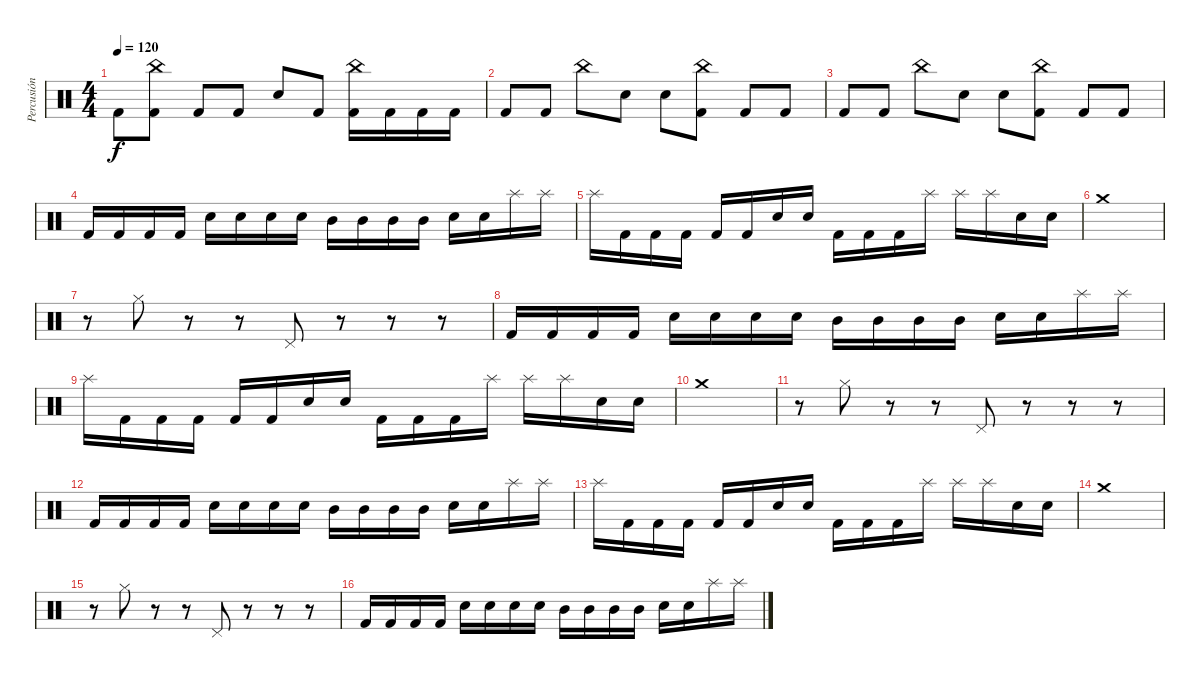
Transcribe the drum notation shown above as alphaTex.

\track ("Percusión" "Percusión") {instrument percussion}
\staff {score}
\articulation defaults
\ts (4 4)
\tempo 120
\clef neutral
\ks c "Kick (hit) 2".8{dy f}
("China (hit)" "Kick (hit) 2").8 "Kick (hit) 2".8 "Kick (hit) 2".8 "Electric Snare (hit)".8 "Kick (hit) 2".8 ("China (hit)" "Kick (hit) 2").16 "Kick (hit) 2".16 "Kick (hit) 2".16 "Kick (hit) 2".16 |
"Kick (hit) 2".8 "Kick (hit) 2".8 "China (hit)".8 "Electric Snare (hit)".8 "Electric Snare (hit)".8 ("China (hit)" "Kick (hit) 2").8 "Kick (hit) 2".8 "Kick (hit) 2".8 |
"Kick (hit) 2".8 "Kick (hit) 2".8 "China (hit)".8 "Electric Snare (hit)".8 "Electric Snare (hit)".8 ("China (hit)" "Kick (hit) 2").8 "Kick (hit) 2".8 "Kick (hit) 2".8 |
"Kick (hit) 2".16 "Kick (hit) 2".16 "Kick (hit) 2".16 "Kick (hit) 2".16 "Electric Snare (hit)".16 "Electric Snare (hit)".16 "Electric Snare (hit)".16 "Electric Snare (hit)".16 "Mid Tom (hit)".16 "Mid Tom (hit)".16 "Mid Tom (hit)".16 "Mid Tom (hit)".16 "Electric Snare (hit)".16 "Electric Snare (hit)".16 "Splash (hit)".16 "Splash (hit)".16 |
"Splash (hit)".16 "Kick (hit) 2".16 "Kick (hit) 2".16 "Kick (hit) 2".16 "Kick (hit) 2".16 "Kick (hit) 2".16 "Electric Snare (hit)".16 "Electric Snare (hit)".16 "Kick (hit) 2".16 "Kick (hit) 2".16 "Kick (hit) 2".16 "Splash (hit)".16 "Splash (hit)".16 "Splash (hit)".16 "Electric Snare (hit)".16 "Electric Snare (hit)".16 |
"Crash medium (hit)".1 |
r.8 "Hi-Hat (closed)".8 r.8 r.8 "Pedal Hi-Hat (hit)".8 r.8 r.8 r.8 |
"Kick (hit) 2".16 "Kick (hit) 2".16 "Kick (hit) 2".16 "Kick (hit) 2".16 "Electric Snare (hit)".16 "Electric Snare (hit)".16 "Electric Snare (hit)".16 "Electric Snare (hit)".16 "Mid Tom (hit)".16 "Mid Tom (hit)".16 "Mid Tom (hit)".16 "Mid Tom (hit)".16 "Electric Snare (hit)".16 "Electric Snare (hit)".16 "Splash (hit)".16 "Splash (hit)".16 |
"Splash (hit)".16 "Kick (hit) 2".16 "Kick (hit) 2".16 "Kick (hit) 2".16 "Kick (hit) 2".16 "Kick (hit) 2".16 "Electric Snare (hit)".16 "Electric Snare (hit)".16 "Kick (hit) 2".16 "Kick (hit) 2".16 "Kick (hit) 2".16 "Splash (hit)".16 "Splash (hit)".16 "Splash (hit)".16 "Electric Snare (hit)".16 "Electric Snare (hit)".16 |
"Crash medium (hit)".1 |
r.8 "Hi-Hat (closed)".8 r.8 r.8 "Pedal Hi-Hat (hit)".8 r.8 r.8 r.8 |
"Kick (hit) 2".16 "Kick (hit) 2".16 "Kick (hit) 2".16 "Kick (hit) 2".16 "Electric Snare (hit)".16 "Electric Snare (hit)".16 "Electric Snare (hit)".16 "Electric Snare (hit)".16 "Mid Tom (hit)".16 "Mid Tom (hit)".16 "Mid Tom (hit)".16 "Mid Tom (hit)".16 "Electric Snare (hit)".16 "Electric Snare (hit)".16 "Splash (hit)".16 "Splash (hit)".16 |
"Splash (hit)".16 "Kick (hit) 2".16 "Kick (hit) 2".16 "Kick (hit) 2".16 "Kick (hit) 2".16 "Kick (hit) 2".16 "Electric Snare (hit)".16 "Electric Snare (hit)".16 "Kick (hit) 2".16 "Kick (hit) 2".16 "Kick (hit) 2".16 "Splash (hit)".16 "Splash (hit)".16 "Splash (hit)".16 "Electric Snare (hit)".16 "Electric Snare (hit)".16 |
"Crash medium (hit)".1 |
r.8 "Hi-Hat (closed)".8 r.8 r.8 "Pedal Hi-Hat (hit)".8 r.8 r.8 r.8 |
"Kick (hit) 2".16 "Kick (hit) 2".16 "Kick (hit) 2".16 "Kick (hit) 2".16 "Electric Snare (hit)".16 "Electric Snare (hit)".16 "Electric Snare (hit)".16 "Electric Snare (hit)".16 "Mid Tom (hit)".16 "Mid Tom (hit)".16 "Mid Tom (hit)".16 "Mid Tom (hit)".16 "Electric Snare (hit)".16 "Electric Snare (hit)".16 "Splash (hit)".16 "Splash (hit)".16
